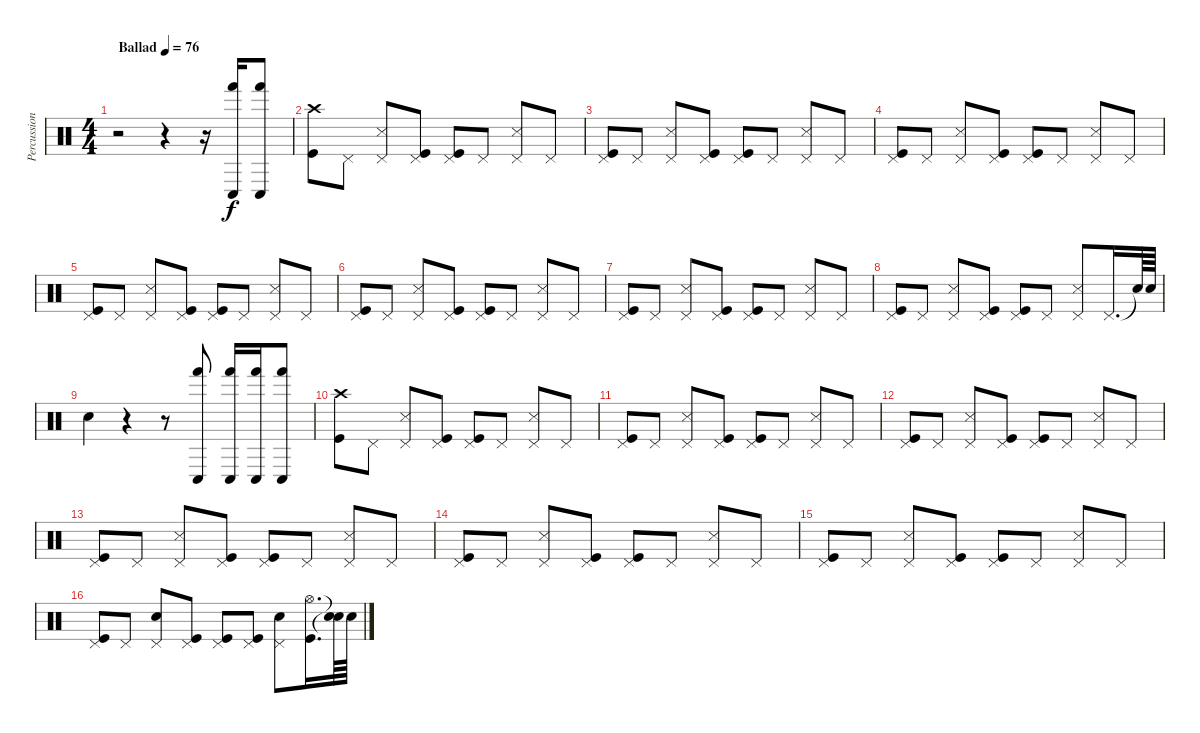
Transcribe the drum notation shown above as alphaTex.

\track ("Percussions" "Percussion") {instrument percussion}
\staff {score}
\articulation defaults
\ts (4 4)
\tempo (76 "Ballad")
\clef neutral
\ks c
r.2{dy f} r.4 r.16 ("Conga low (hit)" "Hand (hit)").16 ("Hand (hit)" "Conga low (hit)").8 |
("Kick (hit)" "Crash high (hit)").8 "Pedal Hi-Hat (hit)".8 ("Snare (side stick) 3" "Pedal Hi-Hat (hit)").8 ("Kick (hit)" "Pedal Hi-Hat (hit)").8 ("Kick (hit)" "Pedal Hi-Hat (hit)").8 "Pedal Hi-Hat (hit)".8 ("Snare (side stick) 3" "Pedal Hi-Hat (hit)").8 "Pedal Hi-Hat (hit)".8 |
("Kick (hit)" "Pedal Hi-Hat (hit)").8 "Pedal Hi-Hat (hit)".8 ("Snare (side stick) 3" "Pedal Hi-Hat (hit)").8 ("Kick (hit)" "Pedal Hi-Hat (hit)").8 ("Kick (hit)" "Pedal Hi-Hat (hit)").8 "Pedal Hi-Hat (hit)".8 ("Snare (side stick) 3" "Pedal Hi-Hat (hit)").8 "Pedal Hi-Hat (hit)".8 |
("Pedal Hi-Hat (hit)" "Kick (hit)").8 "Pedal Hi-Hat (hit)".8 ("Snare (side stick) 3" "Pedal Hi-Hat (hit)").8 ("Kick (hit)" "Pedal Hi-Hat (hit)").8 ("Kick (hit)" "Pedal Hi-Hat (hit)").8 "Pedal Hi-Hat (hit)".8 ("Snare (side stick) 3" "Pedal Hi-Hat (hit)").8 "Pedal Hi-Hat (hit)".8 |
("Pedal Hi-Hat (hit)" "Kick (hit)").8 "Pedal Hi-Hat (hit)".8 ("Snare (side stick) 3" "Pedal Hi-Hat (hit)").8 ("Kick (hit)" "Pedal Hi-Hat (hit)").8 ("Kick (hit)" "Pedal Hi-Hat (hit)").8 "Pedal Hi-Hat (hit)".8 ("Snare (side stick) 3" "Pedal Hi-Hat (hit)").8 "Pedal Hi-Hat (hit)".8 |
("Pedal Hi-Hat (hit)" "Kick (hit)").8 "Pedal Hi-Hat (hit)".8 ("Snare (side stick) 3" "Pedal Hi-Hat (hit)").8 ("Kick (hit)" "Pedal Hi-Hat (hit)").8 ("Kick (hit)" "Pedal Hi-Hat (hit)").8 "Pedal Hi-Hat (hit)".8 ("Snare (side stick) 3" "Pedal Hi-Hat (hit)").8 "Pedal Hi-Hat (hit)".8 |
("Pedal Hi-Hat (hit)" "Kick (hit)").8 "Pedal Hi-Hat (hit)".8 ("Snare (side stick) 3" "Pedal Hi-Hat (hit)").8 ("Kick (hit)" "Pedal Hi-Hat (hit)").8 ("Kick (hit)" "Pedal Hi-Hat (hit)").8 "Pedal Hi-Hat (hit)".8 ("Snare (side stick) 3" "Pedal Hi-Hat (hit)").8 "Pedal Hi-Hat (hit)".8 |
("Pedal Hi-Hat (hit)" "Kick (hit)").8 "Pedal Hi-Hat (hit)".8 ("Snare (side stick) 3" "Pedal Hi-Hat (hit)").8 ("Kick (hit)" "Pedal Hi-Hat (hit)").8 ("Kick (hit)" "Pedal Hi-Hat (hit)").8 "Pedal Hi-Hat (hit)".8 ("Snare (side stick) 3" "Pedal Hi-Hat (hit)").8 "Pedal Hi-Hat (hit)".16{d} "Snare (hit)"{t}.64 "Electric Snare (hit)".64 |
"Electric Snare (hit)".4 r.4 r.8 ("Hand (hit)" "Conga low (hit)").8 ("Conga low (hit)" "Hand (hit)").16 ("Conga low (hit)" "Hand (hit)").16 ("Conga low (hit)" "Hand (hit)").8 |
("Crash high (hit)" "Kick (hit)").8 "Pedal Hi-Hat (hit)".8 ("Snare (side stick) 3" "Pedal Hi-Hat (hit)").8 ("Kick (hit)" "Pedal Hi-Hat (hit)").8 ("Kick (hit)" "Pedal Hi-Hat (hit)").8 "Pedal Hi-Hat (hit)".8 ("Snare (side stick) 3" "Pedal Hi-Hat (hit)").8 "Pedal Hi-Hat (hit)".8 |
("Kick (hit)" "Pedal Hi-Hat (hit)").8 "Pedal Hi-Hat (hit)".8 ("Snare (side stick) 3" "Pedal Hi-Hat (hit)").8 ("Kick (hit)" "Pedal Hi-Hat (hit)").8 ("Kick (hit)" "Pedal Hi-Hat (hit)").8 "Pedal Hi-Hat (hit)".8 ("Snare (side stick) 3" "Pedal Hi-Hat (hit)").8 "Pedal Hi-Hat (hit)".8 |
("Pedal Hi-Hat (hit)" "Kick (hit)").8 "Pedal Hi-Hat (hit)".8 ("Snare (side stick) 3" "Pedal Hi-Hat (hit)").8 ("Kick (hit)" "Pedal Hi-Hat (hit)").8 ("Kick (hit)" "Pedal Hi-Hat (hit)").8 "Pedal Hi-Hat (hit)".8 ("Snare (side stick) 3" "Pedal Hi-Hat (hit)").8 "Pedal Hi-Hat (hit)".8 |
("Pedal Hi-Hat (hit)" "Kick (hit)").8 "Pedal Hi-Hat (hit)".8 ("Snare (side stick) 3" "Pedal Hi-Hat (hit)").8 ("Kick (hit)" "Pedal Hi-Hat (hit)").8 ("Kick (hit)" "Pedal Hi-Hat (hit)").8 "Pedal Hi-Hat (hit)".8 ("Snare (side stick) 3" "Pedal Hi-Hat (hit)").8 "Pedal Hi-Hat (hit)".8 |
("Pedal Hi-Hat (hit)" "Kick (hit)").8 "Pedal Hi-Hat (hit)".8 ("Snare (side stick) 3" "Pedal Hi-Hat (hit)").8 ("Kick (hit)" "Pedal Hi-Hat (hit)").8 ("Kick (hit)" "Pedal Hi-Hat (hit)").8 "Pedal Hi-Hat (hit)".8 ("Snare (side stick) 3" "Pedal Hi-Hat (hit)").8 "Pedal Hi-Hat (hit)".8 |
("Pedal Hi-Hat (hit)" "Kick (hit)").8 "Pedal Hi-Hat (hit)".8 ("Snare (side stick) 3" "Pedal Hi-Hat (hit)").8 ("Kick (hit)" "Pedal Hi-Hat (hit)").8 ("Kick (hit)" "Pedal Hi-Hat (hit)").8 "Pedal Hi-Hat (hit)".8 ("Snare (side stick) 3" "Pedal Hi-Hat (hit)").8 "Pedal Hi-Hat (hit)".8 |
("Kick (hit)" "Pedal Hi-Hat (hit)").8 "Pedal Hi-Hat (hit)".8 ("Pedal Hi-Hat (hit)" "Electric Snare (hit)").8 ("Kick (hit)" "Pedal Hi-Hat (hit)").8 ("Pedal Hi-Hat (hit)" "Kick (hit)").8 ("Pedal Hi-Hat (hit)" "Kick (hit)").8 ("Pedal Hi-Hat (hit)" "Electric Snare (hit)").8 ("Hi-Hat (open)" "Kick (hit)").16{d} ("Snare (hit)"{t} "Snare (hit)"{t}).64 "Electric Snare (hit)".64
